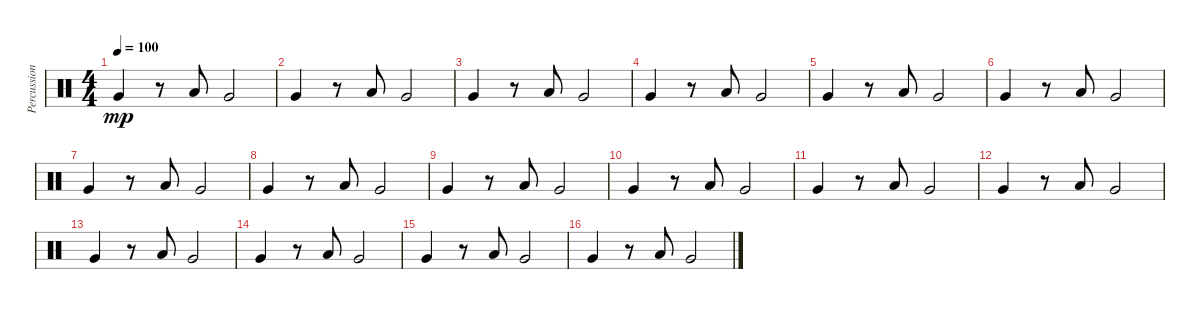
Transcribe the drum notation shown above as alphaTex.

\track ("Percussion" "Percussion") {instrument percussion}
\staff {score}
\articulation defaults
\ts (4 4)
\tempo 100
\clef neutral
\ks c "Very Low Tom (hit)".4{dy mp}
r.8 "Low Tom (hit)".8 "Very Low Tom (hit)".2 |
"Very Low Tom (hit)".4 r.8 "Low Tom (hit)".8 "Very Low Tom (hit)".2 |
"Very Low Tom (hit)".4 r.8 "Low Tom (hit)".8 "Very Low Tom (hit)".2 |
"Very Low Tom (hit)".4 r.8 "Low Tom (hit)".8 "Very Low Tom (hit)".2 |
"Very Low Tom (hit)".4 r.8 "Low Tom (hit)".8 "Very Low Tom (hit)".2 |
"Very Low Tom (hit)".4 r.8 "Low Tom (hit)".8 "Very Low Tom (hit)".2 |
"Very Low Tom (hit)".4 r.8 "Low Tom (hit)".8 "Very Low Tom (hit)".2 |
"Very Low Tom (hit)".4 r.8 "Low Tom (hit)".8 "Very Low Tom (hit)".2 |
"Very Low Tom (hit)".4 r.8 "Low Tom (hit)".8 "Very Low Tom (hit)".2 |
"Very Low Tom (hit)".4 r.8 "Low Tom (hit)".8 "Very Low Tom (hit)".2 |
"Very Low Tom (hit)".4 r.8 "Low Tom (hit)".8 "Very Low Tom (hit)".2 |
"Very Low Tom (hit)".4 r.8 "Low Tom (hit)".8 "Very Low Tom (hit)".2 |
"Very Low Tom (hit)".4 r.8 "Low Tom (hit)".8 "Very Low Tom (hit)".2 |
"Very Low Tom (hit)".4 r.8 "Low Tom (hit)".8 "Very Low Tom (hit)".2 |
"Very Low Tom (hit)".4 r.8 "Low Tom (hit)".8 "Very Low Tom (hit)".2 |
"Very Low Tom (hit)".4 r.8 "Low Tom (hit)".8 "Very Low Tom (hit)".2
